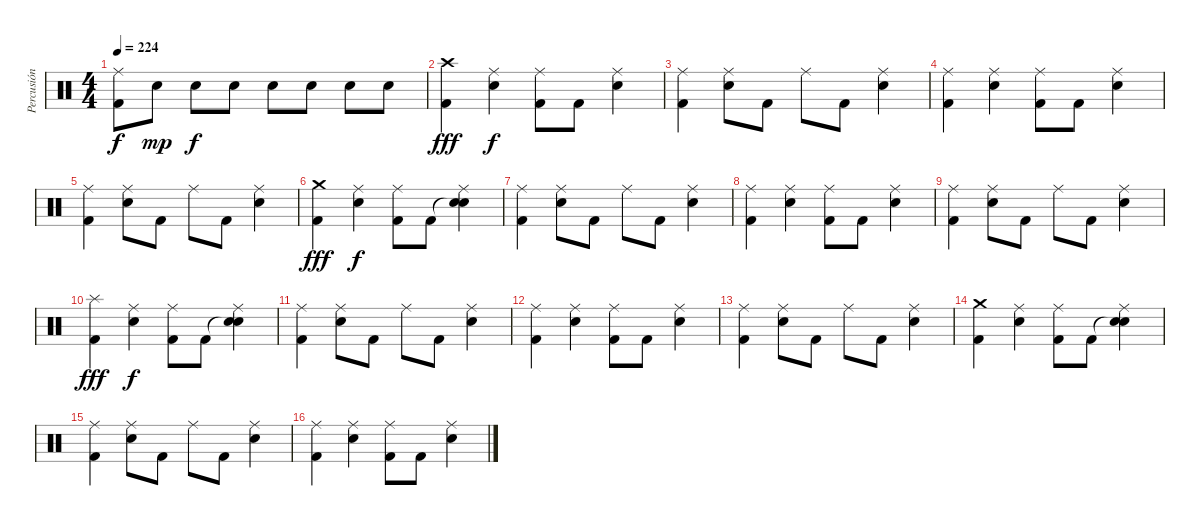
\track ("Percusión" "Percusión") {instrument percussion}
\staff {score}
\articulation defaults
\ts (4 4)
\tempo 224
\clef neutral
\ks c
("Ride (middle)" "Kick (hit) 2").8{dy f} "Electric Snare (hit)".8{dy mp} "Electric Snare (hit)".8{dy f} "Electric Snare (hit)".8 "Electric Snare (hit)".8 "Electric Snare (hit)".8 "Electric Snare (hit)".8 "Electric Snare (hit)".8 |
("Crash high (hit)" "Kick (hit) 2").4{dy fff} ("Ride (middle)" "Electric Snare (hit)").4{dy f} ("Ride (middle)" "Kick (hit) 2").8 "Kick (hit) 2".8 ("Ride (middle)" "Electric Snare (hit)").4 |
("Ride (middle)" "Kick (hit) 2").4 ("Ride (middle)" "Electric Snare (hit)").8 "Kick (hit) 2".8 "Ride (middle)".8 "Kick (hit) 2".8 ("Ride (middle)" "Electric Snare (hit)").4 |
("Ride (middle)" "Kick (hit) 2").4 ("Ride (middle)" "Electric Snare (hit)").4 ("Ride (middle)" "Kick (hit) 2").8 "Kick (hit) 2".8 ("Ride (middle)" "Electric Snare (hit)").4 |
("Ride (middle)" "Kick (hit) 2").4 ("Ride (middle)" "Electric Snare (hit)").8 "Kick (hit) 2".8 "Ride (middle)".8 "Kick (hit) 2".8 ("Ride (middle)" "Electric Snare (hit)").4 |
("Crash medium (hit)" "Kick (hit) 2").4{dy fff} ("Ride (middle)" "Electric Snare (hit)").4{dy f} ("Ride (middle)" "Kick (hit) 2").8 "Kick (hit) 2".8 ("Snare (hit)"{t} "Ride (middle)" "Electric Snare (hit)").4 |
("Ride (middle)" "Kick (hit) 2").4 ("Ride (middle)" "Electric Snare (hit)").8 "Kick (hit) 2".8 "Ride (middle)".8 "Kick (hit) 2".8 ("Ride (middle)" "Electric Snare (hit)").4 |
("Ride (middle)" "Kick (hit) 2").4 ("Ride (middle)" "Electric Snare (hit)").4 ("Ride (middle)" "Kick (hit) 2").8 "Kick (hit) 2".8 ("Ride (middle)" "Electric Snare (hit)").4 |
("Ride (middle)" "Kick (hit) 2").4 ("Ride (middle)" "Electric Snare (hit)").8 "Kick (hit) 2".8 "Ride (middle)".8 "Kick (hit) 2".8 ("Ride (middle)" "Electric Snare (hit)").4 |
("Splash (hit)" "Kick (hit) 2").4{dy fff} ("Ride (middle)" "Electric Snare (hit)").4{dy f} ("Ride (middle)" "Kick (hit) 2").8 "Kick (hit) 2".8 ("Snare (hit)"{t} "Ride (middle)" "Electric Snare (hit)").4 |
("Ride (middle)" "Kick (hit) 2").4 ("Ride (middle)" "Electric Snare (hit)").8 "Kick (hit) 2".8 "Ride (middle)".8 "Kick (hit) 2".8 ("Ride (middle)" "Electric Snare (hit)").4 |
("Ride (middle)" "Kick (hit) 2").4 ("Ride (middle)" "Electric Snare (hit)").4 ("Ride (middle)" "Kick (hit) 2").8 "Kick (hit) 2".8 ("Ride (middle)" "Electric Snare (hit)").4 |
("Ride (middle)" "Kick (hit) 2").4 ("Ride (middle)" "Electric Snare (hit)").8 "Kick (hit) 2".8 "Ride (middle)".8 "Kick (hit) 2".8 ("Ride (middle)" "Electric Snare (hit)").4 |
("Crash medium (hit)" "Kick (hit) 2").4 ("Ride (middle)" "Electric Snare (hit)").4 ("Ride (middle)" "Kick (hit) 2").8 "Kick (hit) 2".8 ("Snare (hit)"{t} "Ride (middle)" "Electric Snare (hit)").4 |
("Ride (middle)" "Kick (hit) 2").4 ("Ride (middle)" "Electric Snare (hit)").8 "Kick (hit) 2".8 "Ride (middle)".8 "Kick (hit) 2".8 ("Ride (middle)" "Electric Snare (hit)").4 |
("Ride (middle)" "Kick (hit) 2").4 ("Ride (middle)" "Electric Snare (hit)").4 ("Ride (middle)" "Kick (hit) 2").8 "Kick (hit) 2".8 ("Ride (middle)" "Electric Snare (hit)").4
